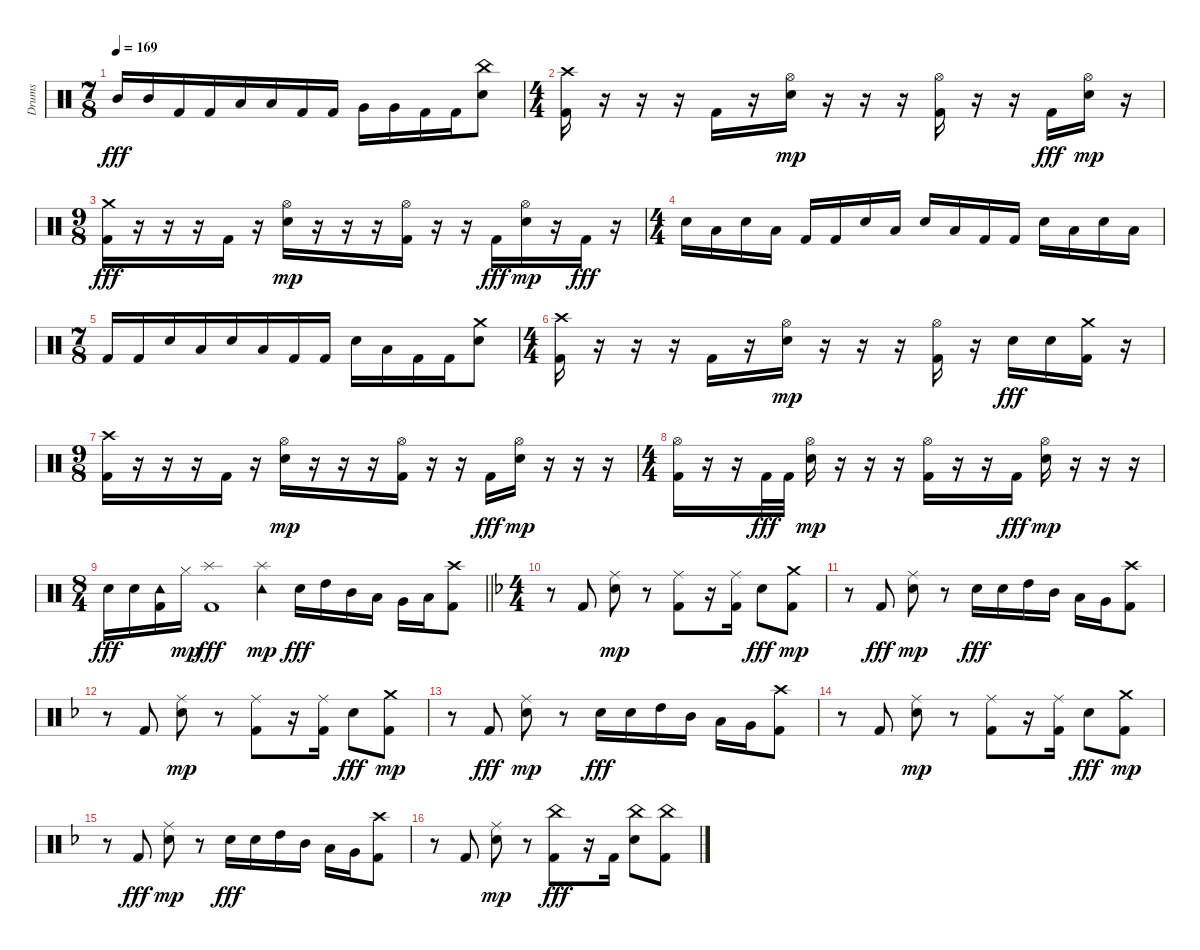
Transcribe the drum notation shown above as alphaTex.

\track ("Drums" "Drums") {instrument percussion}
\staff {score}
\articulation defaults
\ts (7 8)
\tempo 169
\clef neutral
\ks c "Mid Tom (hit)".16{dy fff} "Mid Tom (hit)".16 "Kick (hit) 2".16 "Kick (hit) 2".16 "Low Tom (hit)".16 "Low Tom (hit)".16 "Kick (hit) 2".16 "Kick (hit) 2".16 "Very Low Tom (hit)".16 "Very Low Tom (hit)".16 "Kick (hit) 2".16 "Kick (hit) 2".16
("Electric Snare (hit)" "China (hit)").8 |
\ts (4 4)
("Kick (hit) 2" "Crash high (hit)").16 r.16 r.16 r.16 "Kick (hit) 2".16 r.16 ("Electric Snare (hit)" "Hi-Hat (open)").16{dy mp} r.16 r.16 r.16 ("Kick (hit) 2" "Hi-Hat (open)").16 r.16 r.16 "Kick (hit) 2".16{dy fff} ("Electric Snare (hit)" "Hi-Hat (open)").16{dy mp} r.16 |
\ts (9 8)
("Kick (hit) 2" "Crash medium (hit)").16{dy fff} r.16 r.16 r.16 "Kick (hit) 2".16 r.16 ("Electric Snare (hit)" "Hi-Hat (open)").16{dy mp} r.16 r.16 r.16 ("Kick (hit) 2" "Hi-Hat (open)").16 r.16 r.16 "Kick (hit) 2".16{dy fff} ("Electric Snare (hit)" "Hi-Hat (open)").16{dy mp} r.16 "Kick (hit) 2".16{dy fff} r.16 |
\ts (4 4)
"Electric Snare (hit)".16 "Low Tom (hit)".16 "Electric Snare (hit)".16 "Low Tom (hit)".16 "Kick (hit) 2".16 "Kick (hit) 2".16 "Electric Snare (hit)".16 "Low Tom (hit)".16 "Electric Snare (hit)".16 "Low Tom (hit)".16 "Kick (hit) 2".16 "Kick (hit) 2".16 "Electric Snare (hit)".16 "Low Tom (hit)".16 "Electric Snare (hit)".16 "Low Tom (hit)".16 |
\ts (7 8)
"Kick (hit) 2".16 "Kick (hit) 2".16 "Electric Snare (hit)".16 "Low Tom (hit)".16 "Electric Snare (hit)".16 "Low Tom (hit)".16 "Kick (hit) 2".16 "Kick (hit) 2".16 "Electric Snare (hit)".16 "Low Tom (hit)".16 "Kick (hit) 2".16 "Kick (hit) 2".16 ("Electric Snare (hit)" "Crash medium (hit)").8 |
\ts (4 4)
("Kick (hit) 2" "Crash high (hit)").16 r.16 r.16 r.16 "Kick (hit) 2".16 r.16 ("Electric Snare (hit)" "Hi-Hat (open)").16{dy mp} r.16 r.16 r.16 ("Kick (hit) 2" "Hi-Hat (open)").16 r.16 "Electric Snare (hit)".16{dy fff} "Electric Snare (hit)".16 ("Kick (hit) 2" "Crash medium (hit)").16 r.16 |
\ts (9 8)
("Kick (hit) 2" "Crash high (hit)").16 r.16 r.16 r.16 "Kick (hit) 2".16 r.16 ("Electric Snare (hit)" "Hi-Hat (open)").16{dy mp} r.16 r.16 r.16 ("Kick (hit) 2" "Hi-Hat (open)").16 r.16 r.16 "Kick (hit) 2".16{dy fff} ("Electric Snare (hit)" "Hi-Hat (open)").16{dy mp} r.16 r.16 r.16 |
\ts (4 4)
("Kick (hit) 2" "Hi-Hat (open)").16 r.16 r.16 "Kick (hit) 2".32{dy fff} "Kick (hit) 2".32 ("Electric Snare (hit)" "Hi-Hat (open)").16{dy mp} r.16 r.16 r.16 ("Kick (hit) 2" "Hi-Hat (open)").16 r.16 r.16 "Kick (hit) 2".16{dy fff} ("Electric Snare (hit)" "Hi-Hat (open)").16{dy mp} r.16 r.16 r.16 |
\ts (8 4)
\barLineRight lightlight "Electric Snare (hit)".16{dy fff} "Electric Snare (hit)".16
("Kick (hit) 2" "Tambourine (hit)").16 "Hi-Hat (closed)".16{dy mp} ("Kick (hit) 2" "Splash (hit)").1{dy fff} ("Splash (hit)" "Tambourine (hit)").4{dy mp} "Electric Snare (hit)".16{dy fff} "High Tom (hit)".16 "Mid Tom (hit)".16 "Low Tom (hit)".16 "Very Low Tom (hit)".16 "Low Floor Tom (hit)".16 ("Kick (hit) 2" "Crash high (hit)").8 |
\ts (4 4)
\ks f
r.8 "Kick (hit) 2".8 ("Electric Snare (hit)" "Ride (middle)").8{dy mp} r.8 ("Kick (hit) 2" "Ride (middle)").8 r.16 ("Kick (hit) 2" "Ride (middle)").16 "Electric Snare (hit)".8{dy fff} ("Kick (hit) 2" "Crash medium (hit)").8{dy mp} |
r.8 "Kick (hit) 2".8{dy fff} ("Electric Snare (hit)" "Ride (middle)").8{dy mp} r.8 "Electric Snare (hit)".16{dy fff} "Electric Snare (hit)".16 "High Tom (hit)".16 "Mid Tom (hit)".16 "Low Tom (hit)".16 "Very Low Tom (hit)".16 ("Kick (hit) 2" "Crash high (hit)").8 |
r.8 "Kick (hit) 2".8 ("Electric Snare (hit)" "Ride (middle)").8{dy mp} r.8 ("Kick (hit) 2" "Ride (middle)").8 r.16 ("Kick (hit) 2" "Ride (middle)").16 "Electric Snare (hit)".8{dy fff} ("Kick (hit) 2" "Crash medium (hit)").8{dy mp} |
r.8 "Kick (hit) 2".8{dy fff} ("Electric Snare (hit)" "Ride (middle)").8{dy mp} r.8 "Electric Snare (hit)".16{dy fff} "Electric Snare (hit)".16 "High Tom (hit)".16 "Mid Tom (hit)".16 "Low Tom (hit)".16 "Very Low Tom (hit)".16 ("Kick (hit) 2" "Crash high (hit)").8 |
r.8 "Kick (hit) 2".8 ("Electric Snare (hit)" "Ride (middle)").8{dy mp} r.8 ("Kick (hit) 2" "Ride (middle)").8 r.16 ("Kick (hit) 2" "Ride (middle)").16 "Electric Snare (hit)".8{dy fff} ("Kick (hit) 2" "Crash medium (hit)").8{dy mp} |
r.8 "Kick (hit) 2".8{dy fff} ("Electric Snare (hit)" "Ride (middle)").8{dy mp} r.8 "Electric Snare (hit)".16{dy fff} "Electric Snare (hit)".16 "High Tom (hit)".16 "Mid Tom (hit)".16 "Low Tom (hit)".16 "Very Low Tom (hit)".16 ("Kick (hit) 2" "Crash high (hit)").8 |
r.8 "Kick (hit) 2".8 ("Electric Snare (hit)" "Ride (middle)").8{dy mp} r.8 ("Kick (hit) 2" "China (hit)").8{dy fff} r.16 "Kick (hit) 2".16 ("Electric Snare (hit)" "China (hit)").8 ("Kick (hit) 2" "China (hit)").8
